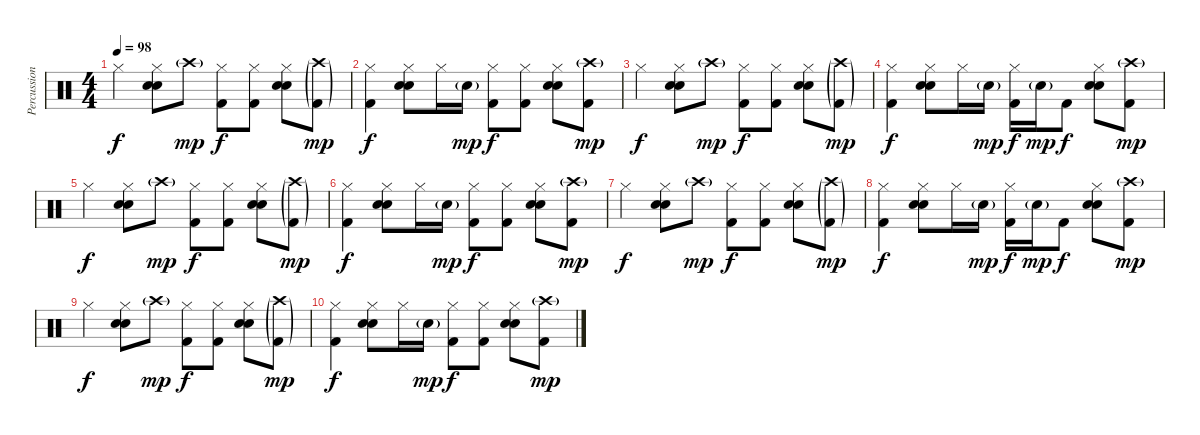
\track ("Percussion" "Percussion") {instrument percussion}
\staff {score}
\articulation defaults
\ts (4 4)
\tempo 98
\clef neutral
\ks c "Hi-Hat (closed)".4{dy f}
("Hi-Hat (closed)" "Snare (hit) 2" "Hand Clap (hit)").8 "Crash high (hit)"{g}.8{dy mp} ("Hi-Hat (closed)" "Kick (hit) 2").8{dy f} ("Hi-Hat (closed)" "Kick (hit) 2").8 ("Hi-Hat (closed)" "Snare (hit) 2" "Hand Clap (hit)").8 ("Crash high (hit)"{g} "Kick (hit) 2"{g}).8{dy mp} |
("Hi-Hat (closed)" "Kick (hit) 2").4{dy f} ("Hi-Hat (closed)" "Snare (hit) 2" "Hand Clap (hit)").8 "Hi-Hat (closed)".16 "Snare (hit) 2"{g}.16{dy mp} ("Hi-Hat (closed)" "Kick (hit) 2").8{dy f} ("Hi-Hat (closed)" "Kick (hit) 2").8 ("Hi-Hat (closed)" "Snare (hit) 2" "Hand Clap (hit)").8 ("Crash high (hit)"{g} "Kick (hit) 2").8{dy mp} |
"Hi-Hat (closed)".4{dy f} ("Hi-Hat (closed)" "Snare (hit) 2" "Hand Clap (hit)").8 "Crash high (hit)"{g}.8{dy mp} ("Hi-Hat (closed)" "Kick (hit) 2").8{dy f} ("Hi-Hat (closed)" "Kick (hit) 2").8 ("Hi-Hat (closed)" "Snare (hit) 2" "Hand Clap (hit)").8 ("Crash high (hit)"{g} "Kick (hit) 2"{g}).8{dy mp} |
("Hi-Hat (closed)" "Kick (hit) 2").4{dy f} ("Hi-Hat (closed)" "Snare (hit) 2" "Hand Clap (hit)").8 "Hi-Hat (closed)".16 "Snare (hit) 2"{g}.16{dy mp} ("Hi-Hat (closed)" "Kick (hit) 2").16{dy f} "Snare (hit) 2"{g}.16{dy mp} "Kick (hit) 2".8{dy f} ("Hi-Hat (closed)" "Snare (hit) 2" "Hand Clap (hit)").8 ("Crash high (hit)"{g} "Kick (hit) 2").8{dy mp} |
"Hi-Hat (closed)".4{dy f} ("Hi-Hat (closed)" "Snare (hit) 2" "Hand Clap (hit)").8 "Crash high (hit)"{g}.8{dy mp} ("Hi-Hat (closed)" "Kick (hit) 2").8{dy f} ("Hi-Hat (closed)" "Kick (hit) 2").8 ("Hi-Hat (closed)" "Snare (hit) 2" "Hand Clap (hit)").8 ("Crash high (hit)"{g} "Kick (hit) 2"{g}).8{dy mp} |
("Hi-Hat (closed)" "Kick (hit) 2").4{dy f} ("Hi-Hat (closed)" "Snare (hit) 2" "Hand Clap (hit)").8 "Hi-Hat (closed)".16 "Snare (hit) 2"{g}.16{dy mp} ("Hi-Hat (closed)" "Kick (hit) 2").8{dy f} ("Hi-Hat (closed)" "Kick (hit) 2").8 ("Hi-Hat (closed)" "Snare (hit) 2" "Hand Clap (hit)").8 ("Crash high (hit)"{g} "Kick (hit) 2").8{dy mp} |
"Hi-Hat (closed)".4{dy f} ("Hi-Hat (closed)" "Snare (hit) 2" "Hand Clap (hit)").8 "Crash high (hit)"{g}.8{dy mp} ("Hi-Hat (closed)" "Kick (hit) 2").8{dy f} ("Hi-Hat (closed)" "Kick (hit) 2").8 ("Hi-Hat (closed)" "Snare (hit) 2" "Hand Clap (hit)").8 ("Crash high (hit)"{g} "Kick (hit) 2"{g}).8{dy mp} |
("Hi-Hat (closed)" "Kick (hit) 2").4{dy f} ("Hi-Hat (closed)" "Snare (hit) 2" "Hand Clap (hit)").8 "Hi-Hat (closed)".16 "Snare (hit) 2"{g}.16{dy mp} ("Hi-Hat (closed)" "Kick (hit) 2").16{dy f} "Snare (hit) 2"{g}.16{dy mp} "Kick (hit) 2".8{dy f} ("Hi-Hat (closed)" "Snare (hit) 2" "Hand Clap (hit)").8 ("Crash high (hit)"{g} "Kick (hit) 2").8{dy mp} |
"Hi-Hat (closed)".4{dy f} ("Hi-Hat (closed)" "Snare (hit) 2" "Hand Clap (hit)").8 "Crash high (hit)"{g}.8{dy mp} ("Hi-Hat (closed)" "Kick (hit) 2").8{dy f} ("Hi-Hat (closed)" "Kick (hit) 2").8 ("Hi-Hat (closed)" "Snare (hit) 2" "Hand Clap (hit)").8 ("Crash high (hit)"{g} "Kick (hit) 2"{g}).8{dy mp} |
("Hi-Hat (closed)" "Kick (hit) 2").4{dy f} ("Hi-Hat (closed)" "Snare (hit) 2" "Hand Clap (hit)").8 "Hi-Hat (closed)".16 "Snare (hit) 2"{g}.16{dy mp} ("Hi-Hat (closed)" "Kick (hit) 2").8{dy f} ("Hi-Hat (closed)" "Kick (hit) 2").8 ("Hi-Hat (closed)" "Snare (hit) 2" "Hand Clap (hit)").8 ("Crash high (hit)"{g} "Kick (hit) 2").8{dy mp}
